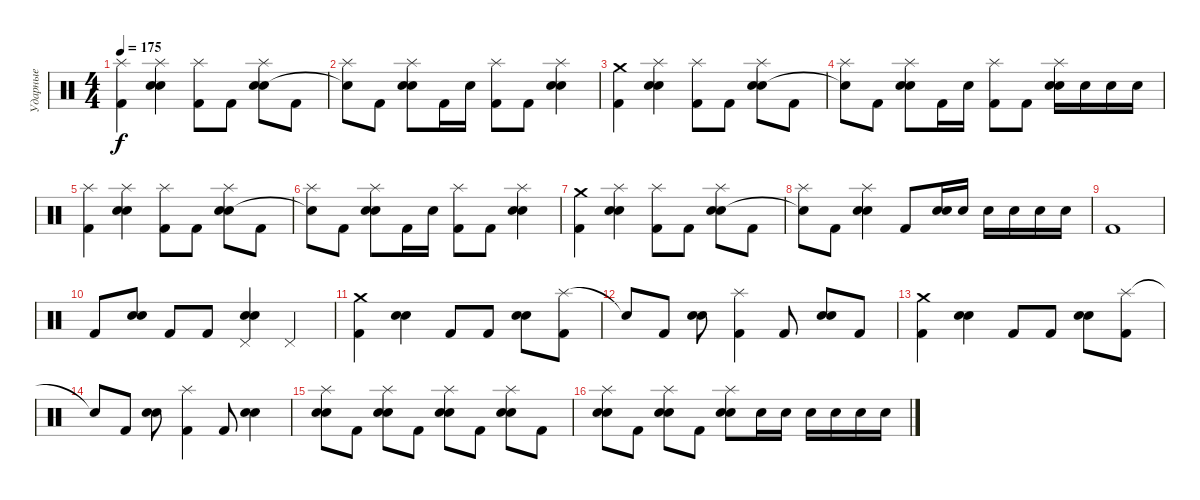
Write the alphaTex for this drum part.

\track ("Ударные" "Ударные") {instrument percussion}
\staff {score}
\articulation defaults
\ts (4 4)
\tempo 175
\clef neutral
\ks c
("Splash (hit)" "Kick (hit) 2").4{dy f} ("Splash (hit)" "Electric Snare (hit)" "Snare (hit) 2").4 ("Splash (hit)" "Kick (hit) 2").8 "Kick (hit) 2".8 ("Splash (hit)" "Electric Snare (hit)" "Snare (hit) 2").8 "Kick (hit) 2".8 |
("Splash (hit)" "Snare (hit)"{t}).8 "Kick (hit) 2".8 ("Splash (hit)" "Electric Snare (hit)" "Snare (hit) 2").8 "Kick (hit) 2".16 "Electric Snare (hit)".16 ("Splash (hit)" "Kick (hit) 2").8 "Kick (hit) 2".8 ("Splash (hit)" "Electric Snare (hit)" "Snare (hit) 2").4 |
("Crash medium (hit)" "Kick (hit) 2").4 ("Splash (hit)" "Electric Snare (hit)" "Snare (hit) 2").4 ("Splash (hit)" "Kick (hit) 2").8 "Kick (hit) 2".8 ("Splash (hit)" "Electric Snare (hit)" "Snare (hit) 2").8 "Kick (hit) 2".8 |
("Splash (hit)" "Snare (hit)"{t}).8 "Kick (hit) 2".8 ("Splash (hit)" "Electric Snare (hit)" "Snare (hit) 2").8 "Kick (hit) 2".16 "Electric Snare (hit)".16 ("Splash (hit)" "Kick (hit) 2").8 "Kick (hit) 2".8 ("Splash (hit)" "Electric Snare (hit)" "Snare (hit) 2").16 "Electric Snare (hit)".16 "Electric Snare (hit)".16 "Electric Snare (hit)".16 |
("Splash (hit)" "Kick (hit) 2").4 ("Splash (hit)" "Electric Snare (hit)" "Snare (hit) 2").4 ("Splash (hit)" "Kick (hit) 2").8 "Kick (hit) 2".8 ("Splash (hit)" "Electric Snare (hit)" "Snare (hit) 2").8 "Kick (hit) 2".8 |
("Splash (hit)" "Snare (hit)"{t}).8 "Kick (hit) 2".8 ("Splash (hit)" "Electric Snare (hit)" "Snare (hit) 2").8 "Kick (hit) 2".16 "Electric Snare (hit)".16 ("Splash (hit)" "Kick (hit) 2").8 "Kick (hit) 2".8 ("Splash (hit)" "Electric Snare (hit)" "Snare (hit) 2").4 |
("Crash medium (hit)" "Kick (hit) 2").4 ("Splash (hit)" "Electric Snare (hit)" "Snare (hit) 2").4 ("Splash (hit)" "Kick (hit) 2").8 "Kick (hit) 2".8 ("Splash (hit)" "Electric Snare (hit)" "Snare (hit) 2").8 "Kick (hit) 2".8 |
("Splash (hit)" "Snare (hit)"{t}).8 "Kick (hit) 2".8 ("Splash (hit)" "Electric Snare (hit)" "Snare (hit) 2").4 "Kick (hit) 2".8 ("Electric Snare (hit)" "Snare (hit) 2").16 "Electric Snare (hit)".16 "Electric Snare (hit)".16 "Electric Snare (hit)".16 "Electric Snare (hit)".16 "Electric Snare (hit)".16 |
"Kick (hit) 2".1 |
"Kick (hit) 2".8 ("Electric Snare (hit)" "Snare (hit) 2").8 "Kick (hit) 2".8 "Kick (hit) 2".8 ("Pedal Hi-Hat (hit)" "Electric Snare (hit)" "Snare (hit) 2").4 "Pedal Hi-Hat (hit)".4 |
("Crash medium (hit)" "Kick (hit) 2").4 ("Electric Snare (hit)" "Snare (hit) 2").4 "Kick (hit) 2".8 "Kick (hit) 2".8 ("Electric Snare (hit)" "Snare (hit) 2").8 ("Splash (hit)" "Kick (hit) 2").8 |
"Snare (hit)"{t}.8 "Kick (hit) 2".8 ("Electric Snare (hit)" "Snare (hit) 2").8 ("Splash (hit)" "Kick (hit) 2").4 "Kick (hit) 2".8 ("Electric Snare (hit)" "Snare (hit) 2").8 "Kick (hit) 2".8 |
("Crash medium (hit)" "Kick (hit) 2").4 ("Electric Snare (hit)" "Snare (hit) 2").4 "Kick (hit) 2".8 "Kick (hit) 2".8 ("Electric Snare (hit)" "Snare (hit) 2").8 ("Splash (hit)" "Kick (hit) 2").8 |
"Snare (hit)"{t}.8 "Kick (hit) 2".8 ("Electric Snare (hit)" "Snare (hit) 2").8 ("Splash (hit)" "Kick (hit) 2").4 "Kick (hit) 2".8 ("Electric Snare (hit)" "Snare (hit) 2").4 |
("Splash (hit)" "Electric Snare (hit)" "Snare (hit) 2").8 "Kick (hit) 2".8 ("Splash (hit)" "Electric Snare (hit)" "Snare (hit) 2").8 "Kick (hit) 2".8 ("Splash (hit)" "Electric Snare (hit)" "Snare (hit) 2").8 "Kick (hit) 2".8 ("Splash (hit)" "Electric Snare (hit)" "Snare (hit) 2").8 "Kick (hit) 2".8 |
("Splash (hit)" "Electric Snare (hit)" "Snare (hit) 2").8 "Kick (hit) 2".8 ("Splash (hit)" "Electric Snare (hit)" "Snare (hit) 2").8 "Kick (hit) 2".8 ("Splash (hit)" "Electric Snare (hit)" "Snare (hit) 2").8 "Electric Snare (hit)".16 "Electric Snare (hit)".16 "Electric Snare (hit)".16 "Electric Snare (hit)".16 "Electric Snare (hit)".16 "Electric Snare (hit)".16
